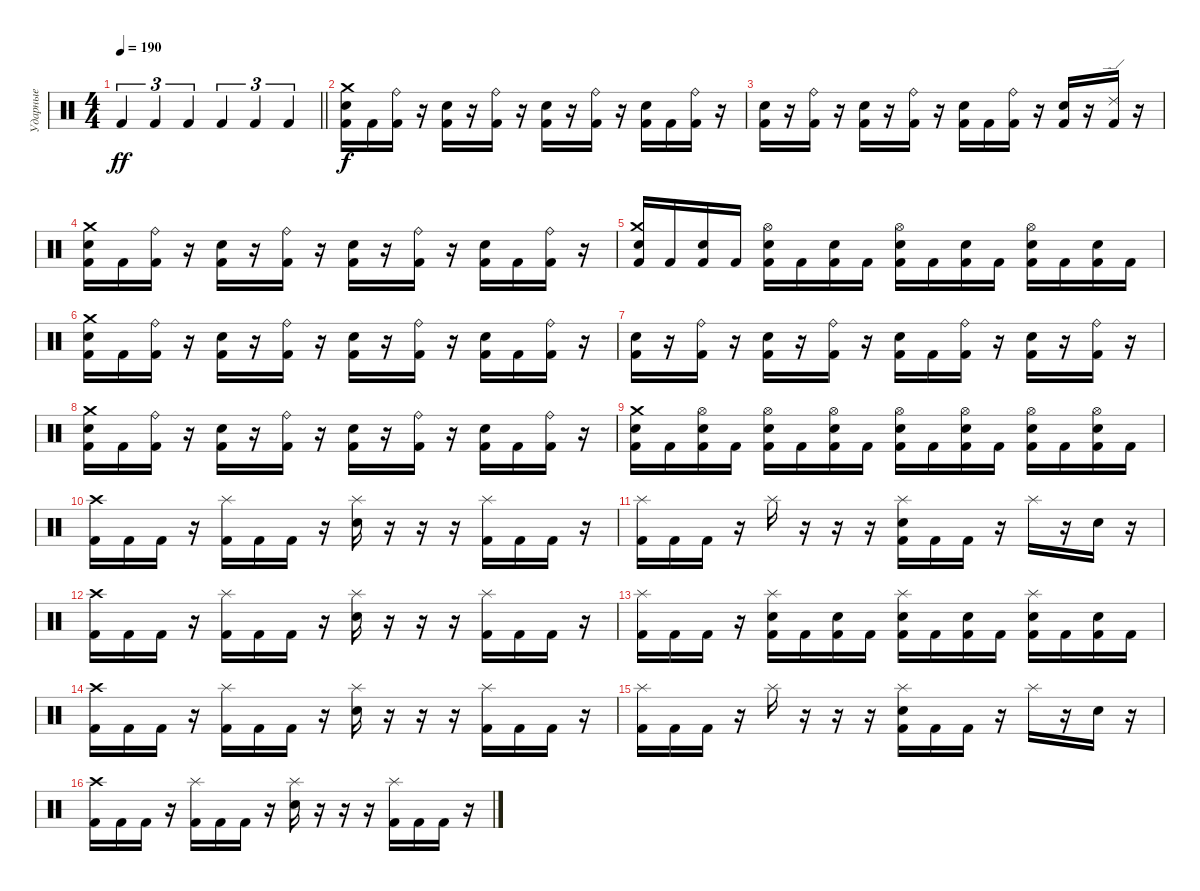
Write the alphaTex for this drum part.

\track ("Ударные" "Ударные") {instrument percussion}
\staff {score}
\articulation defaults
\ts (4 4)
\tempo 190
\clef neutral
\barLineRight lightlight
\ks c "Kick (hit) 2".4{tu (3 2) dy ff} "Kick (hit) 2".4{tu (3 2)} "Kick (hit) 2".4{tu (3 2)} "Kick (hit) 2".4{tu (3 2)} "Kick (hit) 2".4{tu (3 2)} "Kick (hit) 2".4{tu (3 2)}
|
("Crash medium (hit)" "Electric Snare (hit)" "Kick (hit) 2").16{dy f} "Kick (hit) 2".16 ("Ride (bell)" "Kick (hit) 2").16 r.16 ("Electric Snare (hit)" "Kick (hit) 2").16 r.16 ("Ride (bell)" "Kick (hit) 2").16 r.16 ("Electric Snare (hit)" "Kick (hit) 2").16 r.16 ("Ride (bell)" "Kick (hit) 2").16 r.16 ("Electric Snare (hit)" "Kick (hit) 2").16 "Kick (hit) 2".16 ("Ride (bell)" "Kick (hit) 2").16 r.16 |
("Electric Snare (hit)" "Kick (hit) 2").16 r.16 ("Ride (bell)" "Kick (hit) 2").16 r.16 ("Electric Snare (hit)" "Kick (hit) 2").16 r.16 ("Ride (bell)" "Kick (hit) 2").16 r.16 ("Electric Snare (hit)" "Kick (hit) 2").16 "Kick (hit) 2".16 ("Ride (bell)" "Kick (hit) 2").16 r.16 ("Electric Snare (hit)" "Kick (hit) 2").16 r.16 ("Ride (edge) 2" "Kick (hit) 2").16 r.16 |
("Crash medium (hit)" "Electric Snare (hit)" "Kick (hit) 2").16 "Kick (hit) 2".16 ("Ride (bell)" "Kick (hit) 2").16 r.16 ("Electric Snare (hit)" "Kick (hit) 2").16 r.16 ("Ride (bell)" "Kick (hit) 2").16 r.16 ("Electric Snare (hit)" "Kick (hit) 2").16 r.16 ("Ride (bell)" "Kick (hit) 2").16 r.16 ("Electric Snare (hit)" "Kick (hit) 2").16 "Kick (hit) 2".16 ("Ride (bell)" "Kick (hit) 2").16 r.16 |
("Crash medium (hit)" "Electric Snare (hit)" "Kick (hit) 2").16 "Kick (hit) 2".16 ("Electric Snare (hit)" "Kick (hit) 2").16 "Kick (hit) 2".16 ("Hi-Hat (open)" "Electric Snare (hit)" "Kick (hit) 2").16 "Kick (hit) 2".16 ("Electric Snare (hit)" "Kick (hit) 2").16 "Kick (hit) 2".16 ("Hi-Hat (open)" "Electric Snare (hit)" "Kick (hit) 2").16 "Kick (hit) 2".16 ("Electric Snare (hit)" "Kick (hit) 2").16 "Kick (hit) 2".16 ("Hi-Hat (open)" "Electric Snare (hit)" "Kick (hit) 2").16 "Kick (hit) 2".16 ("Electric Snare (hit)" "Kick (hit) 2").16 "Kick (hit) 2".16 |
("Crash medium (hit)" "Electric Snare (hit)" "Kick (hit) 2").16 "Kick (hit) 2".16 ("Ride (bell)" "Kick (hit) 2").16 r.16 ("Electric Snare (hit)" "Kick (hit) 2").16 r.16 ("Ride (bell)" "Kick (hit) 2").16 r.16 ("Electric Snare (hit)" "Kick (hit) 2").16 r.16 ("Ride (bell)" "Kick (hit) 2").16 r.16 ("Electric Snare (hit)" "Kick (hit) 2").16 "Kick (hit) 2".16 ("Ride (bell)" "Kick (hit) 2").16 r.16 |
("Electric Snare (hit)" "Kick (hit) 2").16 r.16 ("Ride (bell)" "Kick (hit) 2").16 r.16 ("Electric Snare (hit)" "Kick (hit) 2").16 r.16 ("Ride (bell)" "Kick (hit) 2").16 r.16 ("Electric Snare (hit)" "Kick (hit) 2").16 "Kick (hit) 2".16 ("Ride (bell)" "Kick (hit) 2").16 r.16 ("Electric Snare (hit)" "Kick (hit) 2").16 r.16 ("Ride (bell)" "Kick (hit) 2").16 r.16 |
("Crash medium (hit)" "Electric Snare (hit)" "Kick (hit) 2").16 "Kick (hit) 2".16 ("Ride (bell)" "Kick (hit) 2").16 r.16 ("Electric Snare (hit)" "Kick (hit) 2").16 r.16 ("Ride (bell)" "Kick (hit) 2").16 r.16 ("Electric Snare (hit)" "Kick (hit) 2").16 r.16 ("Ride (bell)" "Kick (hit) 2").16 r.16 ("Electric Snare (hit)" "Kick (hit) 2").16 "Kick (hit) 2".16 ("Ride (bell)" "Kick (hit) 2").16 r.16 |
("Crash medium (hit)" "Electric Snare (hit)" "Kick (hit) 2").16 "Kick (hit) 2".16 ("Hi-Hat (open)" "Electric Snare (hit)" "Kick (hit) 2").16 "Kick (hit) 2".16 ("Hi-Hat (open)" "Electric Snare (hit)" "Kick (hit) 2").16 "Kick (hit) 2".16 ("Hi-Hat (open)" "Electric Snare (hit)" "Kick (hit) 2").16 "Kick (hit) 2".16 ("Hi-Hat (open)" "Electric Snare (hit)" "Kick (hit) 2").16 "Kick (hit) 2".16 ("Hi-Hat (open)" "Electric Snare (hit)" "Kick (hit) 2").16 "Kick (hit) 2".16 ("Hi-Hat (open)" "Electric Snare (hit)" "Kick (hit) 2").16 "Kick (hit) 2".16 ("Hi-Hat (open)" "Electric Snare (hit)" "Kick (hit) 2").16 "Kick (hit) 2".16 |
("Crash high (hit)" "Kick (hit) 2").16 "Kick (hit) 2".16 "Kick (hit) 2".16 r.16 ("Splash (hit)" "Kick (hit) 2").16 "Kick (hit) 2".16 "Kick (hit) 2".16 r.16 ("Splash (hit)" "Electric Snare (hit)").16 r.16 r.16 r.16 ("Splash (hit)" "Kick (hit) 2").16 "Kick (hit) 2".16 "Kick (hit) 2".16 r.16 |
("Splash (hit)" "Kick (hit) 2").16 "Kick (hit) 2".16 "Kick (hit) 2".16 r.16 "Splash (hit)".16 r.16 r.16 r.16 ("Splash (hit)" "Electric Snare (hit)" "Kick (hit) 2").16 "Kick (hit) 2".16 "Kick (hit) 2".16 r.16 "Splash (hit)".16 r.16 "Electric Snare (hit)".16 r.16 |
("Crash high (hit)" "Kick (hit) 2").16 "Kick (hit) 2".16 "Kick (hit) 2".16 r.16 ("Splash (hit)" "Kick (hit) 2").16 "Kick (hit) 2".16 "Kick (hit) 2".16 r.16 ("Splash (hit)" "Electric Snare (hit)").16 r.16 r.16 r.16 ("Splash (hit)" "Kick (hit) 2").16 "Kick (hit) 2".16 "Kick (hit) 2".16 r.16 |
("Splash (hit)" "Kick (hit) 2").16 "Kick (hit) 2".16 "Kick (hit) 2".16 r.16 ("Splash (hit)" "Electric Snare (hit)" "Kick (hit) 2").16 "Kick (hit) 2".16 ("Electric Snare (hit)" "Kick (hit) 2").16 "Kick (hit) 2".16 ("Splash (hit)" "Electric Snare (hit)" "Kick (hit) 2").16 "Kick (hit) 2".16 ("Electric Snare (hit)" "Kick (hit) 2").16 "Kick (hit) 2".16 ("Splash (hit)" "Electric Snare (hit)" "Kick (hit) 2").16 "Kick (hit) 2".16 ("Electric Snare (hit)" "Kick (hit) 2").16 "Kick (hit) 2".16 |
("Crash high (hit)" "Kick (hit) 2").16 "Kick (hit) 2".16 "Kick (hit) 2".16 r.16 ("Splash (hit)" "Kick (hit) 2").16 "Kick (hit) 2".16 "Kick (hit) 2".16 r.16 ("Splash (hit)" "Electric Snare (hit)").16 r.16 r.16 r.16 ("Splash (hit)" "Kick (hit) 2").16 "Kick (hit) 2".16 "Kick (hit) 2".16 r.16 |
("Splash (hit)" "Kick (hit) 2").16 "Kick (hit) 2".16 "Kick (hit) 2".16 r.16 "Splash (hit)".16 r.16 r.16 r.16 ("Splash (hit)" "Electric Snare (hit)" "Kick (hit) 2").16 "Kick (hit) 2".16 "Kick (hit) 2".16 r.16 "Splash (hit)".16 r.16 "Electric Snare (hit)".16 r.16 |
("Crash high (hit)" "Kick (hit) 2").16 "Kick (hit) 2".16 "Kick (hit) 2".16 r.16 ("Splash (hit)" "Kick (hit) 2").16 "Kick (hit) 2".16 "Kick (hit) 2".16 r.16 ("Splash (hit)" "Electric Snare (hit)").16 r.16 r.16 r.16 ("Splash (hit)" "Kick (hit) 2").16 "Kick (hit) 2".16 "Kick (hit) 2".16 r.16
